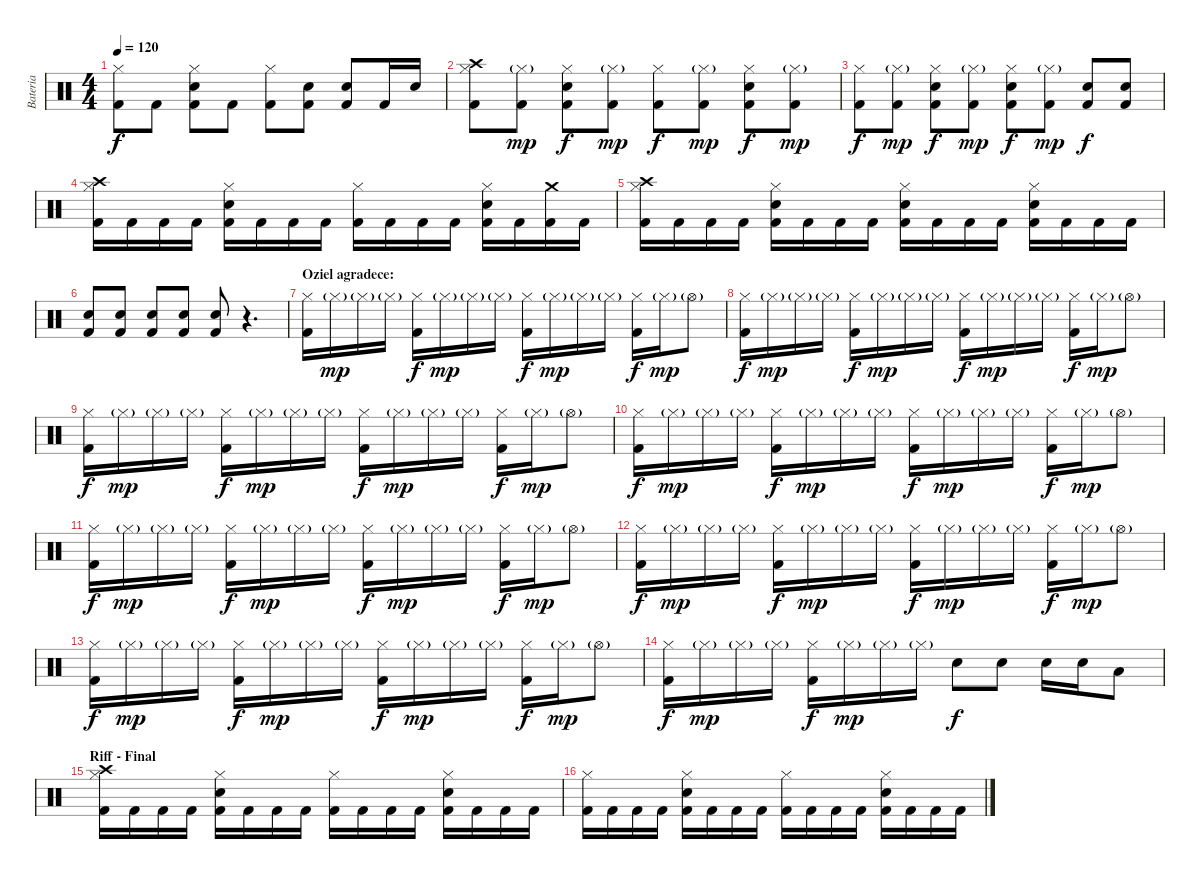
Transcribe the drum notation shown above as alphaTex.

\track ("Bateria" "Bateria") {instrument percussion}
\staff {score}
\articulation defaults
\ts (4 4)
\tempo 120
\clef neutral
\ks c
("Hi-Hat (closed)" "Kick (hit) 2").8{dy f} "Kick (hit) 2".8 ("Hi-Hat (closed)" "Snare (hit) 2" "Kick (hit) 2").8 "Kick (hit) 2".8 ("Hi-Hat (closed)" "Kick (hit) 2").8 ("Snare (hit) 2" "Kick (hit) 2").8 ("Snare (hit) 2" "Kick (hit) 2").8 "Kick (hit) 2".16 "Snare (hit) 2".16 |
("Hi-Hat (closed)" "Kick (hit) 2" "Crash high (hit)").8 ("Hi-Hat (closed)"{g} "Kick (hit) 2").8{dy mp} ("Hi-Hat (closed)" "Snare (hit) 2" "Kick (hit) 2").8{dy f} ("Hi-Hat (closed)"{g} "Kick (hit) 2").8{dy mp} ("Hi-Hat (closed)" "Kick (hit) 2").8{dy f} ("Hi-Hat (closed)"{g} "Kick (hit) 2").8{dy mp} ("Hi-Hat (closed)" "Snare (hit) 2" "Kick (hit) 2").8{dy f} ("Hi-Hat (closed)"{g} "Kick (hit) 2").8{dy mp} |
("Hi-Hat (closed)" "Kick (hit) 2").8{dy f} ("Hi-Hat (closed)"{g} "Kick (hit) 2").8{dy mp} ("Hi-Hat (closed)" "Snare (hit) 2" "Kick (hit) 2").8{dy f} ("Hi-Hat (closed)"{g} "Kick (hit) 2").8{dy mp} ("Hi-Hat (closed)" "Snare (hit) 2" "Kick (hit) 2").8{dy f} ("Hi-Hat (closed)"{g} "Kick (hit) 2").8{dy mp} ("Snare (hit) 2" "Kick (hit) 2").8{dy f} ("Snare (hit) 2" "Kick (hit) 2").8 |
("Hi-Hat (closed)" "Kick (hit) 2" "Crash high (hit)").16 "Kick (hit) 2".16 "Kick (hit) 2".16 "Kick (hit) 2".16 ("Hi-Hat (closed)" "Snare (hit) 2" "Kick (hit) 2").16 "Kick (hit) 2".16 "Kick (hit) 2".16 "Kick (hit) 2".16 ("Hi-Hat (closed)" "Kick (hit) 2").16 "Kick (hit) 2".16 "Kick (hit) 2".16 "Kick (hit) 2".16 ("Hi-Hat (closed)" "Snare (hit) 2" "Kick (hit) 2").16 "Kick (hit) 2".16 ("Kick (hit) 2" "Crash medium (hit)").16 "Kick (hit) 2".16 |
("Hi-Hat (closed)" "Kick (hit) 2" "Crash high (hit)").16 "Kick (hit) 2".16 "Kick (hit) 2".16 "Kick (hit) 2".16 ("Hi-Hat (closed)" "Snare (hit) 2" "Kick (hit) 2").16 "Kick (hit) 2".16 "Kick (hit) 2".16 "Kick (hit) 2".16 ("Hi-Hat (closed)" "Snare (hit) 2" "Kick (hit) 2").16 "Kick (hit) 2".16 "Kick (hit) 2".16 "Kick (hit) 2".16 ("Hi-Hat (closed)" "Snare (hit) 2" "Kick (hit) 2").16 "Kick (hit) 2".16 "Kick (hit) 2".16 "Kick (hit) 2".16 |
("Snare (hit) 2" "Kick (hit) 2").8 ("Snare (hit) 2" "Kick (hit) 2").8 ("Snare (hit) 2" "Kick (hit) 2").8 ("Snare (hit) 2" "Kick (hit) 2").8 ("Snare (hit) 2" "Kick (hit) 2").8 r.4{d} |
\section ("" "Oziel agradece:")
("Hi-Hat (closed)" "Kick (hit) 2").16 "Hi-Hat (closed)"{g}.16{dy mp} "Hi-Hat (closed)"{g}.16 "Hi-Hat (closed)"{g}.16 ("Hi-Hat (closed)" "Kick (hit) 2").16{dy f} "Hi-Hat (closed)"{g}.16{dy mp} "Hi-Hat (closed)"{g}.16 "Hi-Hat (closed)"{g}.16 ("Hi-Hat (closed)" "Kick (hit) 2").16{dy f} "Hi-Hat (closed)"{g}.16{dy mp} "Hi-Hat (closed)"{g}.16 "Hi-Hat (closed)"{g}.16 ("Hi-Hat (closed)" "Kick (hit) 2").16{dy f} "Hi-Hat (closed)"{g}.16{dy mp} "Hi-Hat (open)"{g}.8 |
("Hi-Hat (closed)" "Kick (hit) 2").16{dy f} "Hi-Hat (closed)"{g}.16{dy mp} "Hi-Hat (closed)"{g}.16 "Hi-Hat (closed)"{g}.16 ("Hi-Hat (closed)" "Kick (hit) 2").16{dy f} "Hi-Hat (closed)"{g}.16{dy mp} "Hi-Hat (closed)"{g}.16 "Hi-Hat (closed)"{g}.16 ("Hi-Hat (closed)" "Kick (hit) 2").16{dy f} "Hi-Hat (closed)"{g}.16{dy mp} "Hi-Hat (closed)"{g}.16 "Hi-Hat (closed)"{g}.16 ("Hi-Hat (closed)" "Kick (hit) 2").16{dy f} "Hi-Hat (closed)"{g}.16{dy mp} "Hi-Hat (open)"{g}.8 |
("Hi-Hat (closed)" "Kick (hit) 2").16{dy f} "Hi-Hat (closed)"{g}.16{dy mp} "Hi-Hat (closed)"{g}.16 "Hi-Hat (closed)"{g}.16 ("Hi-Hat (closed)" "Kick (hit) 2").16{dy f} "Hi-Hat (closed)"{g}.16{dy mp} "Hi-Hat (closed)"{g}.16 "Hi-Hat (closed)"{g}.16 ("Hi-Hat (closed)" "Kick (hit) 2").16{dy f} "Hi-Hat (closed)"{g}.16{dy mp} "Hi-Hat (closed)"{g}.16 "Hi-Hat (closed)"{g}.16 ("Hi-Hat (closed)" "Kick (hit) 2").16{dy f} "Hi-Hat (closed)"{g}.16{dy mp} "Hi-Hat (open)"{g}.8 |
("Hi-Hat (closed)" "Kick (hit) 2").16{dy f} "Hi-Hat (closed)"{g}.16{dy mp} "Hi-Hat (closed)"{g}.16 "Hi-Hat (closed)"{g}.16 ("Hi-Hat (closed)" "Kick (hit) 2").16{dy f} "Hi-Hat (closed)"{g}.16{dy mp} "Hi-Hat (closed)"{g}.16 "Hi-Hat (closed)"{g}.16 ("Hi-Hat (closed)" "Kick (hit) 2").16{dy f} "Hi-Hat (closed)"{g}.16{dy mp} "Hi-Hat (closed)"{g}.16 "Hi-Hat (closed)"{g}.16 ("Hi-Hat (closed)" "Kick (hit) 2").16{dy f} "Hi-Hat (closed)"{g}.16{dy mp} "Hi-Hat (open)"{g}.8 |
("Hi-Hat (closed)" "Kick (hit) 2").16{dy f} "Hi-Hat (closed)"{g}.16{dy mp} "Hi-Hat (closed)"{g}.16 "Hi-Hat (closed)"{g}.16 ("Hi-Hat (closed)" "Kick (hit) 2").16{dy f} "Hi-Hat (closed)"{g}.16{dy mp} "Hi-Hat (closed)"{g}.16 "Hi-Hat (closed)"{g}.16 ("Hi-Hat (closed)" "Kick (hit) 2").16{dy f} "Hi-Hat (closed)"{g}.16{dy mp} "Hi-Hat (closed)"{g}.16 "Hi-Hat (closed)"{g}.16 ("Hi-Hat (closed)" "Kick (hit) 2").16{dy f} "Hi-Hat (closed)"{g}.16{dy mp} "Hi-Hat (open)"{g}.8 |
("Hi-Hat (closed)" "Kick (hit) 2").16{dy f} "Hi-Hat (closed)"{g}.16{dy mp} "Hi-Hat (closed)"{g}.16 "Hi-Hat (closed)"{g}.16 ("Hi-Hat (closed)" "Kick (hit) 2").16{dy f} "Hi-Hat (closed)"{g}.16{dy mp} "Hi-Hat (closed)"{g}.16 "Hi-Hat (closed)"{g}.16 ("Hi-Hat (closed)" "Kick (hit) 2").16{dy f} "Hi-Hat (closed)"{g}.16{dy mp} "Hi-Hat (closed)"{g}.16 "Hi-Hat (closed)"{g}.16 ("Hi-Hat (closed)" "Kick (hit) 2").16{dy f} "Hi-Hat (closed)"{g}.16{dy mp} "Hi-Hat (open)"{g}.8 |
("Hi-Hat (closed)" "Kick (hit) 2").16{dy f} "Hi-Hat (closed)"{g}.16{dy mp} "Hi-Hat (closed)"{g}.16 "Hi-Hat (closed)"{g}.16 ("Hi-Hat (closed)" "Kick (hit) 2").16{dy f} "Hi-Hat (closed)"{g}.16{dy mp} "Hi-Hat (closed)"{g}.16 "Hi-Hat (closed)"{g}.16 ("Hi-Hat (closed)" "Kick (hit) 2").16{dy f} "Hi-Hat (closed)"{g}.16{dy mp} "Hi-Hat (closed)"{g}.16 "Hi-Hat (closed)"{g}.16 ("Hi-Hat (closed)" "Kick (hit) 2").16{dy f} "Hi-Hat (closed)"{g}.16{dy mp} "Hi-Hat (open)"{g}.8 |
("Hi-Hat (closed)" "Kick (hit) 2").16{dy f} "Hi-Hat (closed)"{g}.16{dy mp} "Hi-Hat (closed)"{g}.16 "Hi-Hat (closed)"{g}.16 ("Hi-Hat (closed)" "Kick (hit) 2").16{dy f} "Hi-Hat (closed)"{g}.16{dy mp} "Hi-Hat (closed)"{g}.16 "Hi-Hat (closed)"{g}.16 "Snare (hit) 2".8{dy f} "Snare (hit) 2".8 "Snare (hit) 2".16 "Snare (hit) 2".16 "Low Tom (hit)".8 |
\section ("" "Riff - Final")
("Hi-Hat (closed)" "Kick (hit) 2" "Crash high (hit)").16 "Kick (hit) 2".16 "Kick (hit) 2".16 "Kick (hit) 2".16 ("Hi-Hat (closed)" "Snare (hit) 2" "Kick (hit) 2").16 "Kick (hit) 2".16 "Kick (hit) 2".16 "Kick (hit) 2".16 ("Hi-Hat (closed)" "Kick (hit) 2").16 "Kick (hit) 2".16 "Kick (hit) 2".16 "Kick (hit) 2".16 ("Hi-Hat (closed)" "Snare (hit) 2" "Kick (hit) 2").16 "Kick (hit) 2".16 "Kick (hit) 2".16 "Kick (hit) 2".16 |
("Hi-Hat (closed)" "Kick (hit) 2").16 "Kick (hit) 2".16 "Kick (hit) 2".16 "Kick (hit) 2".16 ("Hi-Hat (closed)" "Snare (hit) 2" "Kick (hit) 2").16 "Kick (hit) 2".16 "Kick (hit) 2".16 "Kick (hit) 2".16 ("Hi-Hat (closed)" "Kick (hit) 2").16 "Kick (hit) 2".16 "Kick (hit) 2".16 "Kick (hit) 2".16 ("Hi-Hat (closed)" "Snare (hit) 2" "Kick (hit) 2").16 "Kick (hit) 2".16 "Kick (hit) 2".16 "Kick (hit) 2".16
